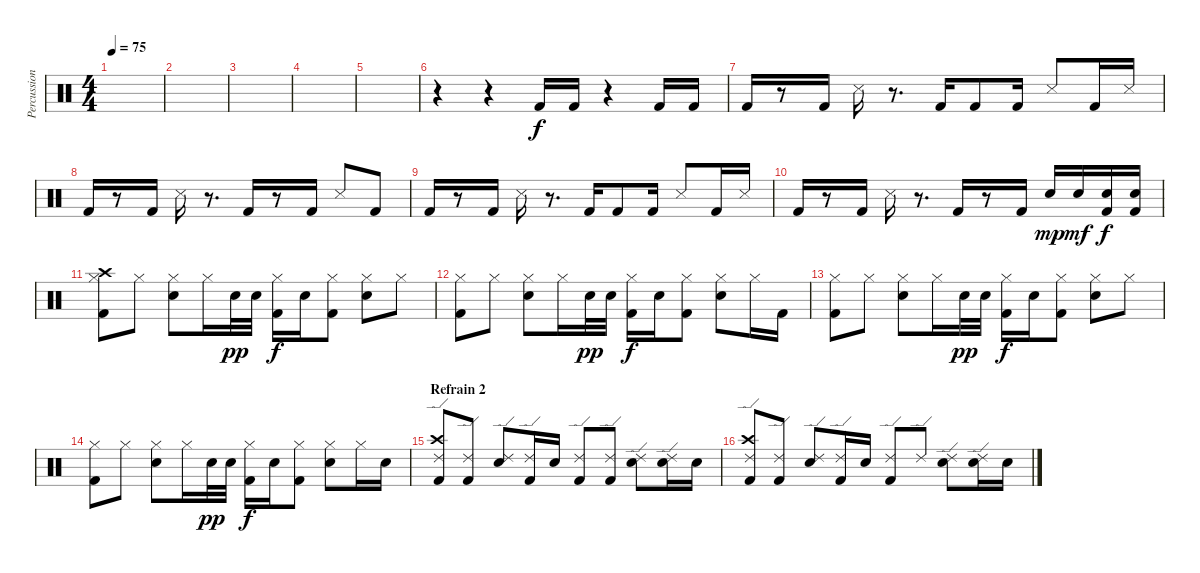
\track ("Percussions" "Percussion") {instrument percussion}
\staff {score}
\articulation defaults
\ts (4 4)
\tempo 75
\clef neutral
\ks c
|
|
|
|
|
r.4 r.4 "Kick (hit) 2".16 "Kick (hit) 2".16 r.4 "Kick (hit) 2".16 "Kick (hit) 2".16 |
"Kick (hit) 2".16 r.8 "Kick (hit) 2".16 "Snare (side stick) 3".16 r.8{d} "Kick (hit) 2".16 "Kick (hit) 2".8 "Kick (hit) 2".16 "Snare (side stick) 3".8 "Kick (hit) 2".16 "Snare (side stick) 3".16 |
"Kick (hit) 2".16 r.8 "Kick (hit) 2".16 "Snare (side stick) 3".16 r.8{d} "Kick (hit) 2".16 r.8 "Kick (hit) 2".16 "Snare (side stick) 3".8 "Kick (hit) 2".8 |
"Kick (hit) 2".16 r.8 "Kick (hit) 2".16 "Snare (side stick) 3".16 r.8{d} "Kick (hit) 2".16 "Kick (hit) 2".8 "Kick (hit) 2".16 "Snare (side stick) 3".8 "Kick (hit) 2".16 "Snare (side stick) 3".16 |
"Kick (hit) 2".16 r.8 "Kick (hit) 2".16 "Snare (side stick) 3".16 r.8{d} "Kick (hit) 2".16 r.8 "Kick (hit) 2".16 "Snare (hit) 2".16{dy mp} "Snare (hit) 2".16{dy mf} ("Snare (hit) 2" "Kick (hit) 2").16{dy f} ("Snare (hit) 2" "Kick (hit) 2").16 |
("Crash high (hit)" "Kick (hit) 2" "Hi-Hat (closed)").8 "Hi-Hat (closed)".8 ("Snare (hit) 2" "Hi-Hat (closed)").8 "Hi-Hat (closed)".16 "Snare (hit) 2".32{dy pp} "Snare (hit) 2".32 ("Kick (hit) 2" "Hi-Hat (closed)").16{dy f} "Snare (hit) 2".16 ("Kick (hit) 2" "Hi-Hat (closed)").8 ("Snare (hit) 2" "Hi-Hat (closed)").8 "Hi-Hat (closed)".8 |
("Kick (hit) 2" "Hi-Hat (closed)").8 "Hi-Hat (closed)".8 ("Snare (hit) 2" "Hi-Hat (closed)").8 "Hi-Hat (closed)".16 "Snare (hit) 2".32{dy pp} "Snare (hit) 2".32 ("Kick (hit) 2" "Hi-Hat (closed)").16{dy f} "Snare (hit) 2".16 ("Kick (hit) 2" "Hi-Hat (closed)").8 ("Snare (hit) 2" "Hi-Hat (closed)").8 "Hi-Hat (closed)".16 "Kick (hit) 2".16 |
("Kick (hit) 2" "Hi-Hat (closed)").8 "Hi-Hat (closed)".8 ("Snare (hit) 2" "Hi-Hat (closed)").8 "Hi-Hat (closed)".16 "Snare (hit) 2".32{dy pp} "Snare (hit) 2".32 ("Kick (hit) 2" "Hi-Hat (closed)").16{dy f} "Snare (hit) 2".16 ("Kick (hit) 2" "Hi-Hat (closed)").8 ("Snare (hit) 2" "Hi-Hat (closed)").8 "Hi-Hat (closed)".8 |
("Kick (hit) 2" "Hi-Hat (closed)").8 "Hi-Hat (closed)".8 ("Snare (hit) 2" "Hi-Hat (closed)").8 "Hi-Hat (closed)".16 "Snare (hit) 2".32{dy pp} "Snare (hit) 2".32 ("Kick (hit) 2" "Hi-Hat (closed)").16{dy f} "Snare (hit) 2".16 ("Kick (hit) 2" "Hi-Hat (closed)").8 ("Snare (hit) 2" "Hi-Hat (closed)").8 "Hi-Hat (closed)".16 "Snare (hit) 2".16 |
\section ("" "Refrain 2")
("Crash high (hit)" "Kick (hit) 2" "Ride (edge) 2").8 ("Kick (hit) 2" "Ride (edge) 2").8 ("Snare (hit) 2" "Ride (edge) 2").8 ("Kick (hit) 2" "Ride (edge) 2").16 "Snare (hit) 2".16 ("Kick (hit) 2" "Ride (edge) 2").8 ("Kick (hit) 2" "Ride (edge) 2").8 ("Snare (hit) 2" "Ride (edge) 2").8 ("Snare (hit) 2" "Ride (edge) 2").16 "Snare (hit) 2".16 |
("Crash high (hit)" "Kick (hit) 2" "Ride (edge) 2").8 ("Kick (hit) 2" "Ride (edge) 2").8 ("Snare (hit) 2" "Ride (edge) 2").8 ("Kick (hit) 2" "Ride (edge) 2").16 "Snare (hit) 2".16 ("Kick (hit) 2" "Ride (edge) 2").8 "Ride (edge) 2".8 ("Snare (hit) 2" "Ride (edge) 2").8 ("Snare (hit) 2" "Ride (edge) 2").16 "Snare (hit) 2".16
